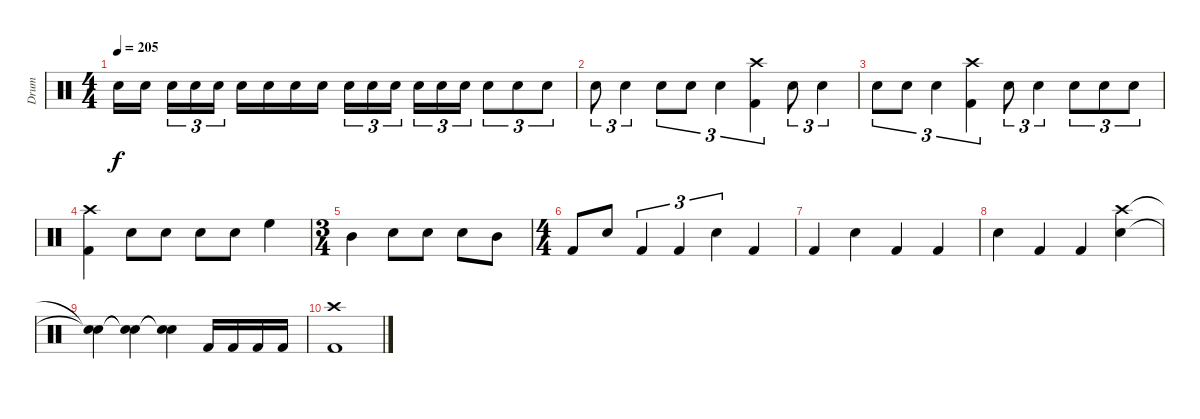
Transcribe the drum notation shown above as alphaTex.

\track ("Drum" "Drum") {instrument percussion}
\staff {score}
\articulation defaults
\ts (4 4)
\tempo 205
\clef neutral
\ks c "Electric Snare (hit)".16{dy f} "Electric Snare (hit)".16 "Electric Snare (hit)".16{tu (3 2)} "Electric Snare (hit)".16{tu (3 2)} "Electric Snare (hit)".16{tu (3 2)} "Electric Snare (hit)".16 "Electric Snare (hit)".16 "Electric Snare (hit)".16 "Electric Snare (hit)".16 "Electric Snare (hit)".16{tu (3 2)} "Electric Snare (hit)".16{tu (3 2)} "Electric Snare (hit)".16{tu (3 2)} "Electric Snare (hit)".16{tu (3 2)} "Electric Snare (hit)".16{tu (3 2)} "Electric Snare (hit)".16{tu (3 2)} "Electric Snare (hit)".8{tu (3 2)} "Electric Snare (hit)".8{tu (3 2)} "Electric Snare (hit)".8{tu (3 2)}
|
"Electric Snare (hit)".8{tu (3 2)} "Electric Snare (hit)".4{tu (3 2)} "Electric Snare (hit)".8{tu (3 2)} "Electric Snare (hit)".8{tu (3 2)} "Electric Snare (hit)".4{tu (3 2)} ("Crash high (hit)" "Kick (hit) 2").4{tu (3 2)} "Electric Snare (hit)".8{tu (3 2)} "Electric Snare (hit)".4{tu (3 2)} |
"Electric Snare (hit)".8{tu (3 2)} "Electric Snare (hit)".8{tu (3 2)} "Electric Snare (hit)".4{tu (3 2)} ("Crash high (hit)" "Kick (hit) 2").4{tu (3 2)} "Electric Snare (hit)".8{tu (3 2)} "Electric Snare (hit)".4{tu (3 2)} "Electric Snare (hit)".8{tu (3 2)} "Electric Snare (hit)".8{tu (3 2)} "Electric Snare (hit)".8{tu (3 2)} |
("Crash high (hit)" "Kick (hit) 2").4 "Electric Snare (hit)".8 "Electric Snare (hit)".8 "Electric Snare (hit)".8 "Electric Snare (hit)".8 "High Floor Tom (hit)".4 |
\ts (3 4)
"Mid Tom (hit)".4 "Electric Snare (hit)".8 "Electric Snare (hit)".8 "Electric Snare (hit)".8 "Mid Tom (hit)".8 |
\ts (4 4)
"Kick (hit) 2".8 "Electric Snare (hit)".8 "Kick (hit) 2".4{tu (3 2)} "Kick (hit) 2".4{tu (3 2)} "Electric Snare (hit)".4{tu (3 2)} "Kick (hit) 2".4 |
"Kick (hit) 2".4 "Electric Snare (hit)".4 "Kick (hit) 2".4 "Kick (hit) 2".4 |
"Electric Snare (hit)".4 "Kick (hit) 2".4 "Kick (hit) 2".4 ("Crash high (hit)" "Electric Snare (hit)").4 |
("Snare (hit)"{t} "Snare (hit)"{t}).4 ("Snare (hit)"{t} "Snare (hit)"{t}).4 ("Snare (hit)"{t} "Snare (hit)"{t}).4 "Kick (hit) 2".16 "Kick (hit) 2".16 "Kick (hit) 2".16 "Kick (hit) 2".16 |
("Kick (hit) 2" "Crash high (hit)").1
